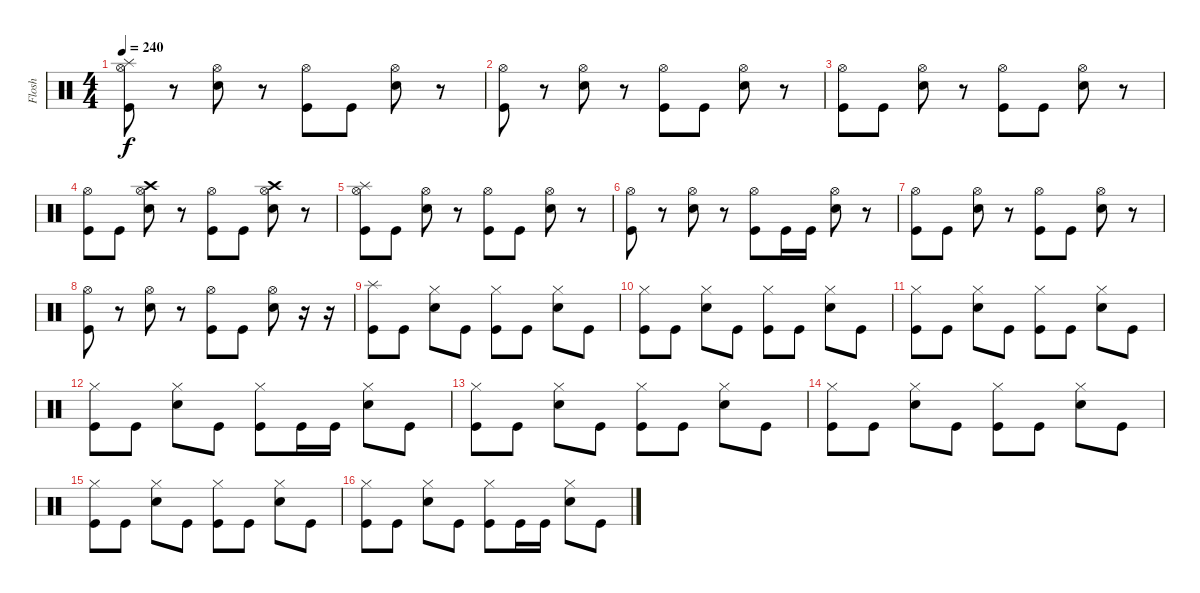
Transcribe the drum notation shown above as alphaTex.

\track ("Flosh" "Flosh") {instrument percussion}
\staff {score}
\articulation defaults
\ts (4 4)
\tempo 240
\clef neutral
\ks c
("Splash (hit)" "Hi-Hat (open)" "Kick (hit)").8{dy f} r.8 ("Hi-Hat (open)" "Snare (hit) 2").8 r.8 ("Hi-Hat (open)" "Kick (hit)").8 "Kick (hit)".8 ("Hi-Hat (open)" "Snare (hit) 2").8 r.8 |
("Hi-Hat (open)" "Kick (hit)").8 r.8 ("Hi-Hat (open)" "Snare (hit) 2").8 r.8 ("Hi-Hat (open)" "Kick (hit)").8 "Kick (hit)".8 ("Hi-Hat (open)" "Snare (hit) 2").8 r.8 |
("Hi-Hat (open)" "Kick (hit)").8 "Kick (hit)".8 ("Hi-Hat (open)" "Snare (hit) 2").8 r.8 ("Hi-Hat (open)" "Kick (hit)").8 "Kick (hit)".8 ("Hi-Hat (open)" "Snare (hit) 2").8 r.8 |
("Hi-Hat (open)" "Kick (hit)").8 "Kick (hit)".8 ("Crash high (hit)" "Hi-Hat (open)" "Snare (hit) 2").8 r.8 ("Hi-Hat (open)" "Kick (hit)").8 "Kick (hit)".8 ("Crash high (hit)" "Hi-Hat (open)" "Snare (hit) 2").8 r.8 |
("Splash (hit)" "Hi-Hat (open)" "Kick (hit)").8 "Kick (hit)".8 ("Hi-Hat (open)" "Snare (hit) 2").8 r.8 ("Hi-Hat (open)" "Kick (hit)").8 "Kick (hit)".8 ("Hi-Hat (open)" "Snare (hit) 2").8 r.8 |
("Hi-Hat (open)" "Kick (hit)").8 r.8 ("Hi-Hat (open)" "Snare (hit) 2").8 r.8 ("Hi-Hat (open)" "Kick (hit)").8 "Kick (hit)".16 "Kick (hit)".16 ("Hi-Hat (open)" "Snare (hit) 2").8 r.8 |
("Hi-Hat (open)" "Kick (hit)").8 "Kick (hit)".8 ("Hi-Hat (open)" "Snare (hit) 2").8 r.8 ("Hi-Hat (open)" "Kick (hit)").8 "Kick (hit)".8 ("Hi-Hat (open)" "Snare (hit) 2").8 r.8 |
("Hi-Hat (open)" "Kick (hit)").8 r.8 ("Hi-Hat (open)" "Snare (hit) 2").8 r.8 ("Hi-Hat (open)" "Kick (hit)").8 "Kick (hit)".8 ("Hi-Hat (open)" "Snare (hit) 2").8 r.16 r.16 |
("Splash (hit)" "Kick (hit)").8 "Kick (hit)".8 ("Hi-Hat (closed)" "Snare (hit) 2").8 "Kick (hit)".8 ("Hi-Hat (closed)" "Kick (hit)").8 "Kick (hit)".8 ("Hi-Hat (closed)" "Snare (hit) 2").8 "Kick (hit)".8 |
("Hi-Hat (closed)" "Kick (hit)").8 "Kick (hit)".8 ("Hi-Hat (closed)" "Snare (hit) 2").8 "Kick (hit)".8 ("Hi-Hat (closed)" "Kick (hit)").8 "Kick (hit)".8 ("Hi-Hat (closed)" "Snare (hit) 2").8 "Kick (hit)".8 |
("Hi-Hat (closed)" "Kick (hit)").8 "Kick (hit)".8 ("Hi-Hat (closed)" "Snare (hit) 2").8 "Kick (hit)".8 ("Hi-Hat (closed)" "Kick (hit)").8 "Kick (hit)".8 ("Hi-Hat (closed)" "Snare (hit) 2").8 "Kick (hit)".8 |
("Hi-Hat (closed)" "Kick (hit)").8 "Kick (hit)".8 ("Hi-Hat (closed)" "Snare (hit) 2").8 "Kick (hit)".8 ("Hi-Hat (closed)" "Kick (hit)").8 "Kick (hit)".16 "Kick (hit)".16 ("Hi-Hat (closed)" "Snare (hit) 2").8 "Kick (hit)".8 |
("Hi-Hat (closed)" "Kick (hit)").8 "Kick (hit)".8 ("Hi-Hat (closed)" "Snare (hit) 2").8 "Kick (hit)".8 ("Hi-Hat (closed)" "Kick (hit)").8 "Kick (hit)".8 ("Hi-Hat (closed)" "Snare (hit) 2").8 "Kick (hit)".8 |
("Hi-Hat (closed)" "Kick (hit)").8 "Kick (hit)".8 ("Hi-Hat (closed)" "Snare (hit) 2").8 "Kick (hit)".8 ("Hi-Hat (closed)" "Kick (hit)").8 "Kick (hit)".8 ("Hi-Hat (closed)" "Snare (hit) 2").8 "Kick (hit)".8 |
("Hi-Hat (closed)" "Kick (hit)").8 "Kick (hit)".8 ("Hi-Hat (closed)" "Snare (hit) 2").8 "Kick (hit)".8 ("Hi-Hat (closed)" "Kick (hit)").8 "Kick (hit)".8 ("Hi-Hat (closed)" "Snare (hit) 2").8 "Kick (hit)".8 |
("Hi-Hat (closed)" "Kick (hit)").8 "Kick (hit)".8 ("Hi-Hat (closed)" "Snare (hit) 2").8 "Kick (hit)".8 ("Hi-Hat (closed)" "Kick (hit)").8 "Kick (hit)".16 "Kick (hit)".16 ("Hi-Hat (closed)" "Snare (hit) 2").8 "Kick (hit)".8
